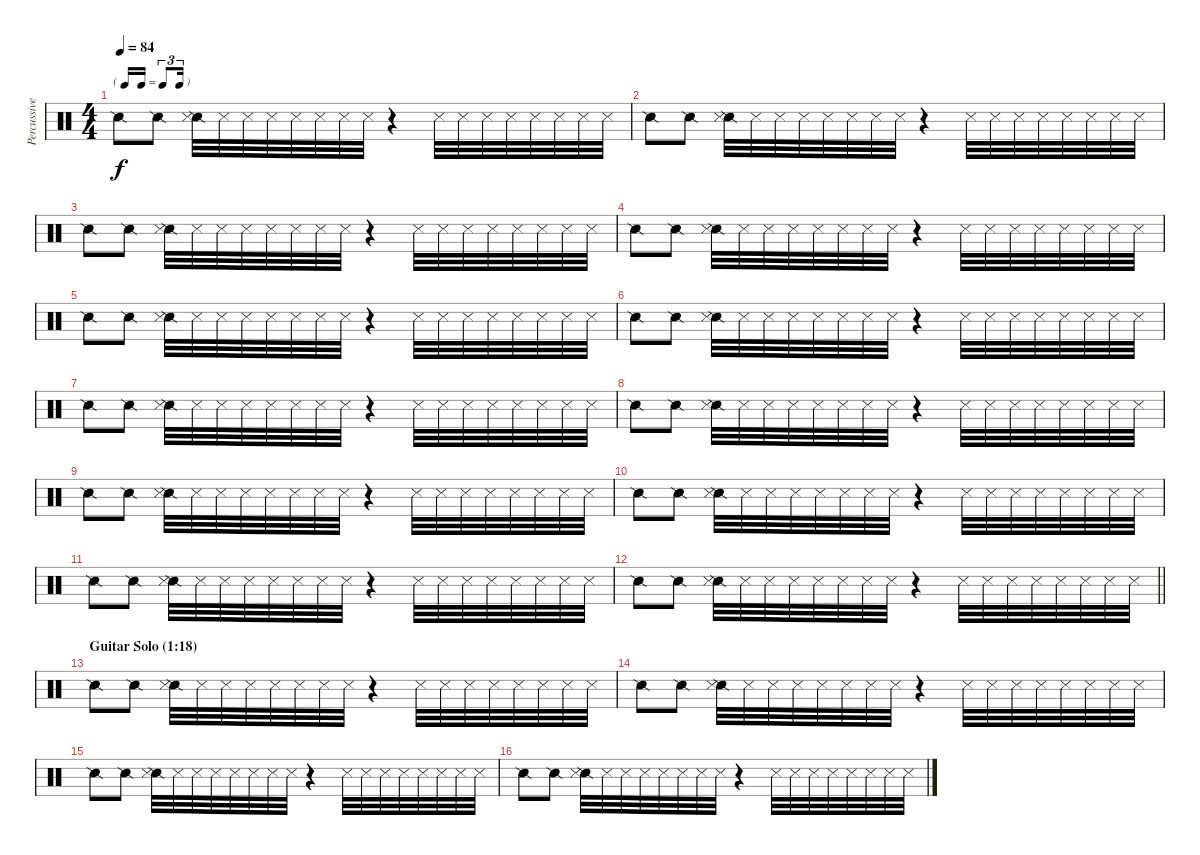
\track ("Percussive Over-Dubs" "Percussive") {instrument percussion}
\staff {score}
\articulation defaults
\ts (4 4)
\tf triplet16th
\tempo 84
\clef neutral
\ks c "Snare (side stick) 2".8{dy f} "Snare (side stick) 2".8
("Snare (side stick) 2" "Metronome (hit)").32 "Metronome (hit)".32 "Metronome (hit)".32 "Metronome (hit)".32 "Metronome (hit)".32 "Metronome (hit)".32 "Metronome (hit)".32 "Metronome (hit)".32 r.4 "Metronome (hit)".32 "Metronome (hit)".32 "Metronome (hit)".32 "Metronome (hit)".32 "Metronome (hit)".32 "Metronome (hit)".32 "Metronome (hit)".32 "Metronome (hit)".32 |
"Snare (side stick) 2".8 "Snare (side stick) 2".8 ("Snare (side stick) 2" "Metronome (hit)").32 "Metronome (hit)".32 "Metronome (hit)".32 "Metronome (hit)".32 "Metronome (hit)".32 "Metronome (hit)".32 "Metronome (hit)".32 "Metronome (hit)".32 r.4 "Metronome (hit)".32 "Metronome (hit)".32 "Metronome (hit)".32 "Metronome (hit)".32 "Metronome (hit)".32 "Metronome (hit)".32 "Metronome (hit)".32 "Metronome (hit)".32 |
"Snare (side stick) 2".8 "Snare (side stick) 2".8 ("Snare (side stick) 2" "Metronome (hit)").32 "Metronome (hit)".32 "Metronome (hit)".32 "Metronome (hit)".32 "Metronome (hit)".32 "Metronome (hit)".32 "Metronome (hit)".32 "Metronome (hit)".32 r.4 "Metronome (hit)".32 "Metronome (hit)".32 "Metronome (hit)".32 "Metronome (hit)".32 "Metronome (hit)".32 "Metronome (hit)".32 "Metronome (hit)".32 "Metronome (hit)".32 |
"Snare (side stick) 2".8 "Snare (side stick) 2".8 ("Snare (side stick) 2" "Metronome (hit)").32 "Metronome (hit)".32 "Metronome (hit)".32 "Metronome (hit)".32 "Metronome (hit)".32 "Metronome (hit)".32 "Metronome (hit)".32 "Metronome (hit)".32 r.4 "Metronome (hit)".32 "Metronome (hit)".32 "Metronome (hit)".32 "Metronome (hit)".32 "Metronome (hit)".32 "Metronome (hit)".32 "Metronome (hit)".32 "Metronome (hit)".32 |
"Snare (side stick) 2".8 "Snare (side stick) 2".8 ("Snare (side stick) 2" "Metronome (hit)").32 "Metronome (hit)".32 "Metronome (hit)".32 "Metronome (hit)".32 "Metronome (hit)".32 "Metronome (hit)".32 "Metronome (hit)".32 "Metronome (hit)".32 r.4 "Metronome (hit)".32 "Metronome (hit)".32 "Metronome (hit)".32 "Metronome (hit)".32 "Metronome (hit)".32 "Metronome (hit)".32 "Metronome (hit)".32 "Metronome (hit)".32 |
"Snare (side stick) 2".8 "Snare (side stick) 2".8 ("Snare (side stick) 2" "Metronome (hit)").32 "Metronome (hit)".32 "Metronome (hit)".32 "Metronome (hit)".32 "Metronome (hit)".32 "Metronome (hit)".32 "Metronome (hit)".32 "Metronome (hit)".32 r.4 "Metronome (hit)".32 "Metronome (hit)".32 "Metronome (hit)".32 "Metronome (hit)".32 "Metronome (hit)".32 "Metronome (hit)".32 "Metronome (hit)".32 "Metronome (hit)".32 |
"Snare (side stick) 2".8 "Snare (side stick) 2".8 ("Snare (side stick) 2" "Metronome (hit)").32 "Metronome (hit)".32 "Metronome (hit)".32 "Metronome (hit)".32 "Metronome (hit)".32 "Metronome (hit)".32 "Metronome (hit)".32 "Metronome (hit)".32 r.4 "Metronome (hit)".32 "Metronome (hit)".32 "Metronome (hit)".32 "Metronome (hit)".32 "Metronome (hit)".32 "Metronome (hit)".32 "Metronome (hit)".32 "Metronome (hit)".32 |
"Snare (side stick) 2".8 "Snare (side stick) 2".8 ("Snare (side stick) 2" "Metronome (hit)").32 "Metronome (hit)".32 "Metronome (hit)".32 "Metronome (hit)".32 "Metronome (hit)".32 "Metronome (hit)".32 "Metronome (hit)".32 "Metronome (hit)".32 r.4 "Metronome (hit)".32 "Metronome (hit)".32 "Metronome (hit)".32 "Metronome (hit)".32 "Metronome (hit)".32 "Metronome (hit)".32 "Metronome (hit)".32 "Metronome (hit)".32 |
"Snare (side stick) 2".8 "Snare (side stick) 2".8 ("Snare (side stick) 2" "Metronome (hit)").32 "Metronome (hit)".32 "Metronome (hit)".32 "Metronome (hit)".32 "Metronome (hit)".32 "Metronome (hit)".32 "Metronome (hit)".32 "Metronome (hit)".32 r.4 "Metronome (hit)".32 "Metronome (hit)".32 "Metronome (hit)".32 "Metronome (hit)".32 "Metronome (hit)".32 "Metronome (hit)".32 "Metronome (hit)".32 "Metronome (hit)".32 |
"Snare (side stick) 2".8 "Snare (side stick) 2".8 ("Snare (side stick) 2" "Metronome (hit)").32 "Metronome (hit)".32 "Metronome (hit)".32 "Metronome (hit)".32 "Metronome (hit)".32 "Metronome (hit)".32 "Metronome (hit)".32 "Metronome (hit)".32 r.4 "Metronome (hit)".32 "Metronome (hit)".32 "Metronome (hit)".32 "Metronome (hit)".32 "Metronome (hit)".32 "Metronome (hit)".32 "Metronome (hit)".32 "Metronome (hit)".32 |
"Snare (side stick) 2".8 "Snare (side stick) 2".8 ("Snare (side stick) 2" "Metronome (hit)").32 "Metronome (hit)".32 "Metronome (hit)".32 "Metronome (hit)".32 "Metronome (hit)".32 "Metronome (hit)".32 "Metronome (hit)".32 "Metronome (hit)".32 r.4 "Metronome (hit)".32 "Metronome (hit)".32 "Metronome (hit)".32 "Metronome (hit)".32 "Metronome (hit)".32 "Metronome (hit)".32 "Metronome (hit)".32 "Metronome (hit)".32 |
\barLineRight lightlight "Snare (side stick) 2".8 "Snare (side stick) 2".8
("Snare (side stick) 2" "Metronome (hit)").32 "Metronome (hit)".32 "Metronome (hit)".32 "Metronome (hit)".32 "Metronome (hit)".32 "Metronome (hit)".32 "Metronome (hit)".32 "Metronome (hit)".32 r.4 "Metronome (hit)".32 "Metronome (hit)".32 "Metronome (hit)".32 "Metronome (hit)".32 "Metronome (hit)".32 "Metronome (hit)".32 "Metronome (hit)".32 "Metronome (hit)".32 |
\section ("" "Guitar Solo (1:18)")
"Snare (side stick) 2".8 "Snare (side stick) 2".8 ("Snare (side stick) 2" "Metronome (hit)").32 "Metronome (hit)".32 "Metronome (hit)".32 "Metronome (hit)".32 "Metronome (hit)".32 "Metronome (hit)".32 "Metronome (hit)".32 "Metronome (hit)".32 r.4 "Metronome (hit)".32 "Metronome (hit)".32 "Metronome (hit)".32 "Metronome (hit)".32 "Metronome (hit)".32 "Metronome (hit)".32 "Metronome (hit)".32 "Metronome (hit)".32 |
"Snare (side stick) 2".8 "Snare (side stick) 2".8 ("Snare (side stick) 2" "Metronome (hit)").32 "Metronome (hit)".32 "Metronome (hit)".32 "Metronome (hit)".32 "Metronome (hit)".32 "Metronome (hit)".32 "Metronome (hit)".32 "Metronome (hit)".32 r.4 "Metronome (hit)".32 "Metronome (hit)".32 "Metronome (hit)".32 "Metronome (hit)".32 "Metronome (hit)".32 "Metronome (hit)".32 "Metronome (hit)".32 "Metronome (hit)".32 |
"Snare (side stick) 2".8 "Snare (side stick) 2".8 ("Snare (side stick) 2" "Metronome (hit)").32 "Metronome (hit)".32 "Metronome (hit)".32 "Metronome (hit)".32 "Metronome (hit)".32 "Metronome (hit)".32 "Metronome (hit)".32 "Metronome (hit)".32 r.4 "Metronome (hit)".32 "Metronome (hit)".32 "Metronome (hit)".32 "Metronome (hit)".32 "Metronome (hit)".32 "Metronome (hit)".32 "Metronome (hit)".32 "Metronome (hit)".32 |
"Snare (side stick) 2".8 "Snare (side stick) 2".8 ("Snare (side stick) 2" "Metronome (hit)").32 "Metronome (hit)".32 "Metronome (hit)".32 "Metronome (hit)".32 "Metronome (hit)".32 "Metronome (hit)".32 "Metronome (hit)".32 "Metronome (hit)".32 r.4 "Metronome (hit)".32 "Metronome (hit)".32 "Metronome (hit)".32 "Metronome (hit)".32 "Metronome (hit)".32 "Metronome (hit)".32 "Metronome (hit)".32 "Metronome (hit)".32
